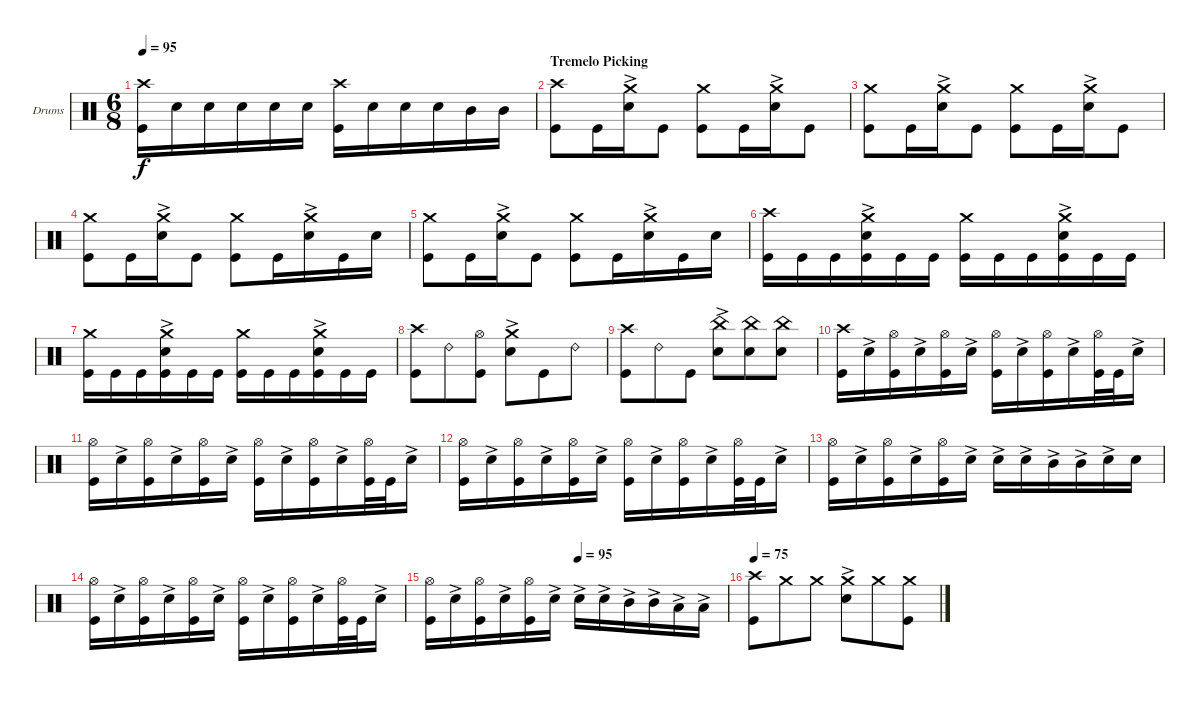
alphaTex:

\bracketExtendMode groupsimilarinstruments
\firstSystemTrackNameOrientation horizontal
\otherSystemsTrackNameOrientation horizontal
\track ("Drumkit" "Drums") {instrument percussion}
\staff {score}
\articulation defaults
\ts (6 8)
\tempo 95
\clef neutral
\ks c
("Kick (hit)" "Crash high (hit)").16{dy f} "Snare (hit) 2".16 "Snare (hit) 2".16 "Snare (hit) 2".16 "Snare (hit) 2".16 "Snare (hit) 2".16 ("Kick (hit)" "Crash high (hit)").16 "Snare (hit) 2".16 "Snare (hit) 2".16 "Snare (hit) 2".16 "Mid Tom (hit)".16 "Mid Tom (hit)".16 |
\section ("" "Tremelo Picking")
("Kick (hit)" "Crash high (hit)").8 "Kick (hit)".16 ("Snare (hit) 2"{ac} "Crash medium (hit)").16 "Kick (hit)".8 ("Kick (hit)" "Crash medium (hit)").8 "Kick (hit)".16 ("Snare (hit) 2"{ac} "Crash medium (hit)").16 "Kick (hit)".8 |
("Kick (hit)" "Crash medium (hit)").8 "Kick (hit)".16 ("Snare (hit) 2"{ac} "Crash medium (hit)").16 "Kick (hit)".8 ("Kick (hit)" "Crash medium (hit)").8 "Kick (hit)".16 ("Snare (hit) 2"{ac} "Crash medium (hit)").16 "Kick (hit)".8 |
("Kick (hit)" "Crash medium (hit)").8 "Kick (hit)".16 ("Snare (hit) 2"{ac} "Crash medium (hit)").16 "Kick (hit)".8 ("Kick (hit)" "Crash medium (hit)").8 "Kick (hit)".16 ("Snare (hit) 2"{ac} "Crash medium (hit)").16 "Kick (hit)".16 "Snare (hit) 2".16 |
("Kick (hit)" "Crash medium (hit)").8 "Kick (hit)".16 ("Snare (hit) 2"{ac} "Crash medium (hit)").16 "Kick (hit)".8 ("Kick (hit)" "Crash medium (hit)").8 "Kick (hit)".16 ("Snare (hit) 2"{ac} "Crash medium (hit)").16 "Kick (hit)".16 "Snare (hit) 2".16 |
("Kick (hit)" "Crash high (hit)").16 "Kick (hit)".16 "Kick (hit)".16 ("Kick (hit)" "Crash medium (hit)" "Snare (hit) 2"{ac}).16 "Kick (hit)".16 "Kick (hit)".16 ("Kick (hit)" "Crash medium (hit)").16 "Kick (hit)".16 "Kick (hit)".16 ("Kick (hit)" "Crash medium (hit)" "Snare (hit) 2"{ac}).16 "Kick (hit)".16 "Kick (hit)".16 |
("Kick (hit)" "Crash medium (hit)").16 "Kick (hit)".16 "Kick (hit)".16 ("Kick (hit)" "Crash medium (hit)" "Snare (hit) 2"{ac}).16 "Kick (hit)".16 "Kick (hit)".16 ("Kick (hit)" "Crash medium (hit)").16 "Kick (hit)".16 "Kick (hit)".16 ("Kick (hit)" "Crash medium (hit)" "Snare (hit) 2"{ac}).16 "Kick (hit)".16 "Kick (hit)".16 |
("Kick (hit)" "Crash high (hit)").8 "Ride (bell) 2".8 ("Kick (hit)" "Hi-Hat (open)").8 ("Snare (hit) 2"{ac} "Crash medium (hit)").8 "Kick (hit)".8 "Ride (bell) 2".8 |
("Kick (hit)" "Crash high (hit)").8 "Ride (bell) 2".8 "Kick (hit)".8 ("Snare (hit) 2"{ac} "China (hit)").8 ("Snare (hit) 2" "China (hit)").8 ("Snare (hit) 2" "China (hit)").8 |
("Kick (hit)" "Crash high (hit)").16 "Snare (hit) 2"{ac}.16 ("Kick (hit)" "Hi-Hat (open)").16 "Snare (hit) 2"{ac}.16 ("Kick (hit)" "Hi-Hat (open)").16 "Snare (hit) 2"{ac}.16 ("Kick (hit)" "Hi-Hat (open)").16 "Snare (hit) 2"{ac}.16 ("Kick (hit)" "Hi-Hat (open)").16 "Snare (hit) 2"{ac}.16 ("Kick (hit)" "Hi-Hat (open)").32 "Kick (hit)".32 "Snare (hit) 2"{ac}.16 |
("Kick (hit)" "Hi-Hat (open)").16 "Snare (hit) 2"{ac}.16 ("Kick (hit)" "Hi-Hat (open)").16 "Snare (hit) 2"{ac}.16 ("Kick (hit)" "Hi-Hat (open)").16 "Snare (hit) 2"{ac}.16 ("Kick (hit)" "Hi-Hat (open)").16 "Snare (hit) 2"{ac}.16 ("Kick (hit)" "Hi-Hat (open)").16 "Snare (hit) 2"{ac}.16 ("Kick (hit)" "Hi-Hat (open)").32 "Kick (hit)".32 "Snare (hit) 2"{ac}.16 |
("Kick (hit)" "Hi-Hat (open)").16 "Snare (hit) 2"{ac}.16 ("Kick (hit)" "Hi-Hat (open)").16 "Snare (hit) 2"{ac}.16 ("Kick (hit)" "Hi-Hat (open)").16 "Snare (hit) 2"{ac}.16 ("Kick (hit)" "Hi-Hat (open)").16 "Snare (hit) 2"{ac}.16 ("Kick (hit)" "Hi-Hat (open)").16 "Snare (hit) 2"{ac}.16 ("Kick (hit)" "Hi-Hat (open)").32 "Kick (hit)".32 "Snare (hit) 2"{ac}.16 |
("Kick (hit)" "Hi-Hat (open)").16 "Snare (hit) 2"{ac}.16 ("Kick (hit)" "Hi-Hat (open)").16 "Snare (hit) 2"{ac}.16 ("Kick (hit)" "Hi-Hat (open)").16 "Snare (hit) 2"{ac}.16 "Snare (hit) 2"{ac}.16 "Snare (hit) 2"{ac}.16 "Mid Tom (hit)"{ac}.16 "Mid Tom (hit)"{ac}.16 "Snare (hit) 2"{ac}.16 "Snare (hit) 2".16 |
("Kick (hit)" "Hi-Hat (open)").16 "Snare (hit) 2"{ac}.16 ("Kick (hit)" "Hi-Hat (open)").16 "Snare (hit) 2"{ac}.16 ("Kick (hit)" "Hi-Hat (open)").16 "Snare (hit) 2"{ac}.16 ("Kick (hit)" "Hi-Hat (open)").16 "Snare (hit) 2"{ac}.16 ("Kick (hit)" "Hi-Hat (open)").16 "Snare (hit) 2"{ac}.16 ("Kick (hit)" "Hi-Hat (open)").32 "Kick (hit)".32 "Snare (hit) 2"{ac}.16 |
\tempo (95 0.5)
("Kick (hit)" "Hi-Hat (open)").16 "Snare (hit) 2"{ac}.16 ("Kick (hit)" "Hi-Hat (open)").16 "Snare (hit) 2"{ac}.16 ("Kick (hit)" "Hi-Hat (open)").16 "Snare (hit) 2"{ac}.16 "Snare (hit) 2"{ac}.16 "Snare (hit) 2"{ac}.16 "Mid Tom (hit)"{ac}.16 "Mid Tom (hit)"{ac}.16 "Low Tom (hit)"{ac}.16 "Low Tom (hit)"{ac}.16 |
\tempo 75
("Kick (hit)" "Crash high (hit)").8 "Crash medium (hit)".8 "Crash medium (hit)".8 ("Crash medium (hit)" "Snare (hit) 2"{ac}).8 "Crash medium (hit)".8 ("Crash medium (hit)" "Kick (hit)").8
